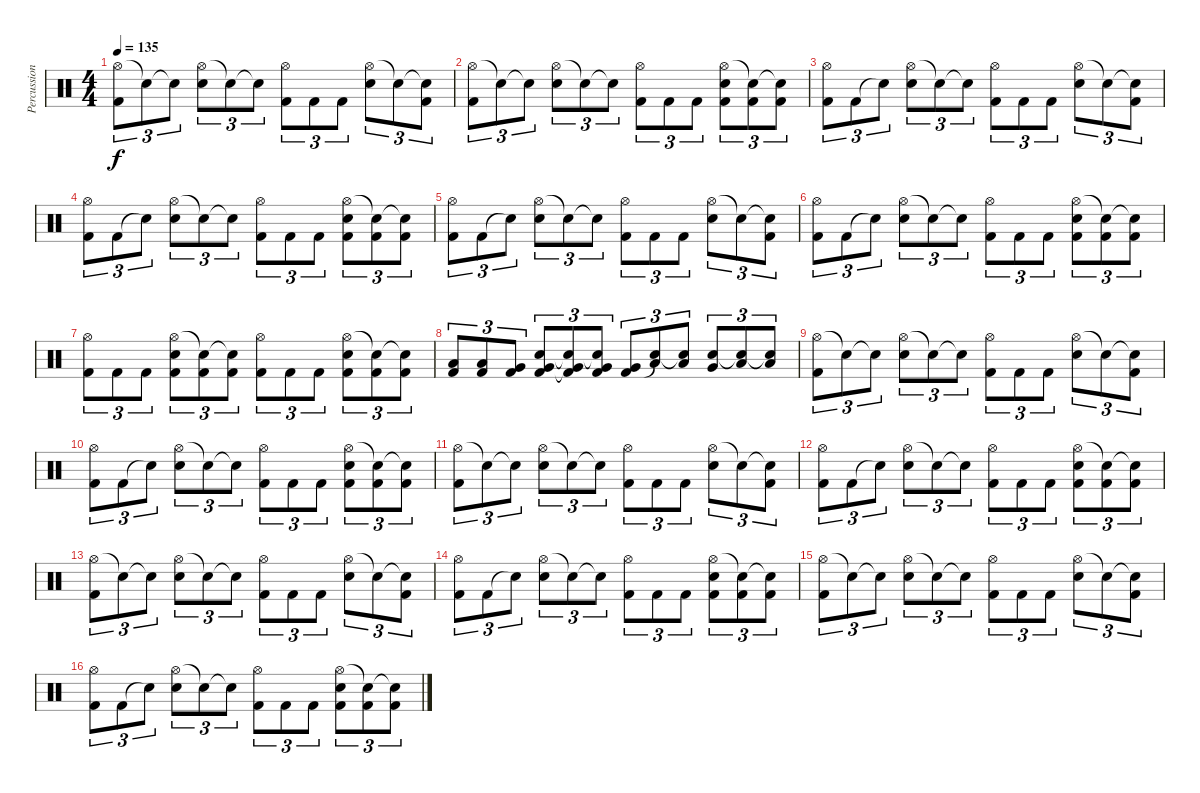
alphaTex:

\track ("Percussions" "Percussion") {instrument percussion}
\staff {score}
\articulation defaults
\ts (4 4)
\tempo 135
\clef neutral
\ks c
("Hi-Hat (open)" "Kick (hit) 2").8{tu (3 2) dy f} "Snare (hit)"{t}.8{tu (3 2)} "Snare (hit)"{t}.8{tu (3 2)} ("Hi-Hat (open)" "Snare (hit) 2").8{tu (3 2)} "Snare (hit)"{t}.8{tu (3 2)} "Snare (hit)"{t}.8{tu (3 2)} ("Hi-Hat (open)" "Kick (hit) 2").8{tu (3 2)} "Kick (hit) 2".8{tu (3 2)} "Kick (hit) 2".8{tu (3 2)} ("Hi-Hat (open)" "Snare (hit) 2").8{tu (3 2)} "Snare (hit)"{t}.8{tu (3 2)} ("Snare (hit)"{t} "Kick (hit) 2").8{tu (3 2)} |
("Hi-Hat (open)" "Kick (hit) 2").8{tu (3 2)} "Snare (hit)"{t}.8{tu (3 2)} "Snare (hit)"{t}.8{tu (3 2)} ("Hi-Hat (open)" "Snare (hit) 2").8{tu (3 2)} "Snare (hit)"{t}.8{tu (3 2)} "Snare (hit)"{t}.8{tu (3 2)} ("Hi-Hat (open)" "Kick (hit) 2").8{tu (3 2)} "Kick (hit) 2".8{tu (3 2)} "Kick (hit) 2".8{tu (3 2)} ("Hi-Hat (open)" "Snare (hit) 2" "Kick (hit) 2").8{tu (3 2)} ("Snare (hit)"{t} "Kick (hit) 2").8{tu (3 2)} ("Snare (hit)"{t} "Kick (hit) 2").8{tu (3 2)} |
("Hi-Hat (open)" "Kick (hit) 2").8{tu (3 2)} "Kick (hit) 2".8{tu (3 2)} "Snare (hit)"{t}.8{tu (3 2)} ("Hi-Hat (open)" "Snare (hit) 2").8{tu (3 2)} "Snare (hit)"{t}.8{tu (3 2)} "Snare (hit)"{t}.8{tu (3 2)} ("Hi-Hat (open)" "Kick (hit) 2").8{tu (3 2)} "Kick (hit) 2".8{tu (3 2)} "Kick (hit) 2".8{tu (3 2)} ("Hi-Hat (open)" "Snare (hit) 2").8{tu (3 2)} "Snare (hit)"{t}.8{tu (3 2)} ("Snare (hit)"{t} "Kick (hit) 2").8{tu (3 2)} |
("Hi-Hat (open)" "Kick (hit) 2").8{tu (3 2)} "Kick (hit) 2".8{tu (3 2)} "Snare (hit)"{t}.8{tu (3 2)} ("Hi-Hat (open)" "Snare (hit) 2").8{tu (3 2)} "Snare (hit)"{t}.8{tu (3 2)} "Snare (hit)"{t}.8{tu (3 2)} ("Hi-Hat (open)" "Kick (hit) 2").8{tu (3 2)} "Kick (hit) 2".8{tu (3 2)} "Kick (hit) 2".8{tu (3 2)} ("Hi-Hat (open)" "Snare (hit) 2" "Kick (hit) 2").8{tu (3 2)} ("Snare (hit)"{t} "Kick (hit) 2").8{tu (3 2)} ("Snare (hit)"{t} "Kick (hit) 2").8{tu (3 2)} |
("Hi-Hat (open)" "Kick (hit) 2").8{tu (3 2)} "Kick (hit) 2".8{tu (3 2)} "Snare (hit)"{t}.8{tu (3 2)} ("Hi-Hat (open)" "Snare (hit) 2").8{tu (3 2)} "Snare (hit)"{t}.8{tu (3 2)} "Snare (hit)"{t}.8{tu (3 2)} ("Hi-Hat (open)" "Kick (hit) 2").8{tu (3 2)} "Kick (hit) 2".8{tu (3 2)} "Kick (hit) 2".8{tu (3 2)} ("Hi-Hat (open)" "Snare (hit) 2").8{tu (3 2)} "Snare (hit)"{t}.8{tu (3 2)} ("Snare (hit)"{t} "Kick (hit) 2").8{tu (3 2)} |
("Hi-Hat (open)" "Kick (hit) 2").8{tu (3 2)} "Kick (hit) 2".8{tu (3 2)} "Snare (hit)"{t}.8{tu (3 2)} ("Hi-Hat (open)" "Snare (hit) 2").8{tu (3 2)} "Snare (hit)"{t}.8{tu (3 2)} "Snare (hit)"{t}.8{tu (3 2)} ("Hi-Hat (open)" "Kick (hit) 2").8{tu (3 2)} "Kick (hit) 2".8{tu (3 2)} "Kick (hit) 2".8{tu (3 2)} ("Hi-Hat (open)" "Snare (hit) 2" "Kick (hit) 2").8{tu (3 2)} ("Snare (hit)"{t} "Kick (hit) 2").8{tu (3 2)} ("Snare (hit)"{t} "Kick (hit) 2").8{tu (3 2)} |
("Hi-Hat (open)" "Kick (hit) 2").8{tu (3 2)} "Kick (hit) 2".8{tu (3 2)} "Kick (hit) 2".8{tu (3 2)} ("Hi-Hat (open)" "Snare (hit) 2" "Kick (hit) 2").8{tu (3 2)} ("Snare (hit)"{t} "Kick (hit) 2").8{tu (3 2)} ("Snare (hit)"{t} "Kick (hit) 2").8{tu (3 2)} ("Hi-Hat (open)" "Kick (hit) 2").8{tu (3 2)} "Kick (hit) 2".8{tu (3 2)} "Kick (hit) 2".8{tu (3 2)} ("Hi-Hat (open)" "Snare (hit) 2" "Kick (hit) 2").8{tu (3 2)} ("Snare (hit)"{t} "Kick (hit) 2").8{tu (3 2)} ("Snare (hit)"{t} "Kick (hit) 2").8{tu (3 2)} |
("Kick (hit) 2" "Low Floor Tom (hit)").8{tu (3 2)} ("Kick (hit) 2" "Low Floor Tom (hit)").8{tu (3 2)} ("Kick (hit) 2" "Very Low Tom (hit)").8{tu (3 2)} ("Snare (hit) 2" "Kick (hit) 2" "Very Low Tom (hit)").8{tu (3 2)} ("Snare (hit)"{t} "Kick (hit) 2" "Very Low Tom (hit)"{t}).8{tu (3 2)} ("Snare (hit)"{t} "Kick (hit) 2" "Very Low Tom (hit)").8{tu (3 2)} ("Kick (hit) 2" "Very Low Tom (hit)").8{tu (3 2)} ("Snare (hit)"{t} "Low Tom (hit)").8{tu (3 2)} ("Snare (hit)"{t} "Low Tom (hit)").8{tu (3 2)} ("Snare (hit) 2" "Very Low Tom (hit)").8{tu (3 2)} ("Snare (hit)"{t} "Low Floor Tom (hit)").8{tu (3 2)} ("Snare (hit)"{t} "Low Floor Tom (hit)").8{tu (3 2)} |
("Hi-Hat (open)" "Kick (hit) 2").8{tu (3 2)} "Snare (hit)"{t}.8{tu (3 2)} "Snare (hit)"{t}.8{tu (3 2)} ("Hi-Hat (open)" "Snare (hit) 2").8{tu (3 2)} "Snare (hit)"{t}.8{tu (3 2)} "Snare (hit)"{t}.8{tu (3 2)} ("Hi-Hat (open)" "Kick (hit) 2").8{tu (3 2)} "Kick (hit) 2".8{tu (3 2)} "Kick (hit) 2".8{tu (3 2)} ("Hi-Hat (open)" "Snare (hit) 2").8{tu (3 2)} "Snare (hit)"{t}.8{tu (3 2)} ("Snare (hit)"{t} "Kick (hit) 2").8{tu (3 2)} |
("Hi-Hat (open)" "Kick (hit) 2").8{tu (3 2)} "Kick (hit) 2".8{tu (3 2)} "Snare (hit)"{t}.8{tu (3 2)} ("Hi-Hat (open)" "Snare (hit) 2").8{tu (3 2)} "Snare (hit)"{t}.8{tu (3 2)} "Snare (hit)"{t}.8{tu (3 2)} ("Hi-Hat (open)" "Kick (hit) 2").8{tu (3 2)} "Kick (hit) 2".8{tu (3 2)} "Kick (hit) 2".8{tu (3 2)} ("Hi-Hat (open)" "Snare (hit) 2" "Kick (hit) 2").8{tu (3 2)} ("Snare (hit)"{t} "Kick (hit) 2").8{tu (3 2)} ("Snare (hit)"{t} "Kick (hit) 2").8{tu (3 2)} |
("Hi-Hat (open)" "Kick (hit) 2").8{tu (3 2)} "Snare (hit)"{t}.8{tu (3 2)} "Snare (hit)"{t}.8{tu (3 2)} ("Hi-Hat (open)" "Snare (hit) 2").8{tu (3 2)} "Snare (hit)"{t}.8{tu (3 2)} "Snare (hit)"{t}.8{tu (3 2)} ("Hi-Hat (open)" "Kick (hit) 2").8{tu (3 2)} "Kick (hit) 2".8{tu (3 2)} "Kick (hit) 2".8{tu (3 2)} ("Hi-Hat (open)" "Snare (hit) 2").8{tu (3 2)} "Snare (hit)"{t}.8{tu (3 2)} ("Snare (hit)"{t} "Kick (hit) 2").8{tu (3 2)} |
("Hi-Hat (open)" "Kick (hit) 2").8{tu (3 2)} "Kick (hit) 2".8{tu (3 2)} "Snare (hit)"{t}.8{tu (3 2)} ("Hi-Hat (open)" "Snare (hit) 2").8{tu (3 2)} "Snare (hit)"{t}.8{tu (3 2)} "Snare (hit)"{t}.8{tu (3 2)} ("Hi-Hat (open)" "Kick (hit) 2").8{tu (3 2)} "Kick (hit) 2".8{tu (3 2)} "Kick (hit) 2".8{tu (3 2)} ("Hi-Hat (open)" "Snare (hit) 2" "Kick (hit) 2").8{tu (3 2)} ("Snare (hit)"{t} "Kick (hit) 2").8{tu (3 2)} ("Snare (hit)"{t} "Kick (hit) 2").8{tu (3 2)} |
("Hi-Hat (open)" "Kick (hit) 2").8{tu (3 2)} "Snare (hit)"{t}.8{tu (3 2)} "Snare (hit)"{t}.8{tu (3 2)} ("Hi-Hat (open)" "Snare (hit) 2").8{tu (3 2)} "Snare (hit)"{t}.8{tu (3 2)} "Snare (hit)"{t}.8{tu (3 2)} ("Hi-Hat (open)" "Kick (hit) 2").8{tu (3 2)} "Kick (hit) 2".8{tu (3 2)} "Kick (hit) 2".8{tu (3 2)} ("Hi-Hat (open)" "Snare (hit) 2").8{tu (3 2)} "Snare (hit)"{t}.8{tu (3 2)} ("Snare (hit)"{t} "Kick (hit) 2").8{tu (3 2)} |
("Hi-Hat (open)" "Kick (hit) 2").8{tu (3 2)} "Kick (hit) 2".8{tu (3 2)} "Snare (hit)"{t}.8{tu (3 2)} ("Hi-Hat (open)" "Snare (hit) 2").8{tu (3 2)} "Snare (hit)"{t}.8{tu (3 2)} "Snare (hit)"{t}.8{tu (3 2)} ("Hi-Hat (open)" "Kick (hit) 2").8{tu (3 2)} "Kick (hit) 2".8{tu (3 2)} "Kick (hit) 2".8{tu (3 2)} ("Hi-Hat (open)" "Snare (hit) 2" "Kick (hit) 2").8{tu (3 2)} ("Snare (hit)"{t} "Kick (hit) 2").8{tu (3 2)} ("Snare (hit)"{t} "Kick (hit) 2").8{tu (3 2)} |
("Hi-Hat (open)" "Kick (hit) 2").8{tu (3 2)} "Snare (hit)"{t}.8{tu (3 2)} "Snare (hit)"{t}.8{tu (3 2)} ("Hi-Hat (open)" "Snare (hit) 2").8{tu (3 2)} "Snare (hit)"{t}.8{tu (3 2)} "Snare (hit)"{t}.8{tu (3 2)} ("Hi-Hat (open)" "Kick (hit) 2").8{tu (3 2)} "Kick (hit) 2".8{tu (3 2)} "Kick (hit) 2".8{tu (3 2)} ("Hi-Hat (open)" "Snare (hit) 2").8{tu (3 2)} "Snare (hit)"{t}.8{tu (3 2)} ("Snare (hit)"{t} "Kick (hit) 2").8{tu (3 2)} |
("Hi-Hat (open)" "Kick (hit) 2").8{tu (3 2)} "Kick (hit) 2".8{tu (3 2)} "Snare (hit)"{t}.8{tu (3 2)} ("Hi-Hat (open)" "Snare (hit) 2").8{tu (3 2)} "Snare (hit)"{t}.8{tu (3 2)} "Snare (hit)"{t}.8{tu (3 2)} ("Hi-Hat (open)" "Kick (hit) 2").8{tu (3 2)} "Kick (hit) 2".8{tu (3 2)} "Kick (hit) 2".8{tu (3 2)} ("Hi-Hat (open)" "Snare (hit) 2" "Kick (hit) 2").8{tu (3 2)} ("Snare (hit)"{t} "Kick (hit) 2").8{tu (3 2)} ("Snare (hit)"{t} "Kick (hit) 2").8{tu (3 2)}
